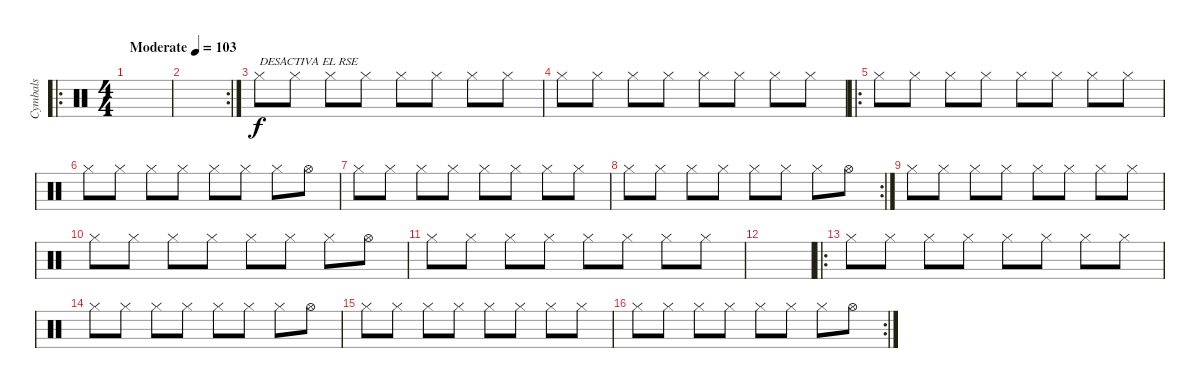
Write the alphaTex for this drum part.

\track ("Cymbals" "Cymbals") {instrument percussion}
\staff {score}
\articulation defaults
\ro
\ts (4 4)
\tempo (103 "Moderate")
\clef neutral
\ks c
|
\rc 2
|
"Hi-Hat (closed)".8{txt "DESACTIVA EL RSE"} "Hi-Hat (closed)".8 "Hi-Hat (closed)".8 "Hi-Hat (closed)".8 "Hi-Hat (closed)".8 "Hi-Hat (closed)".8 "Hi-Hat (closed)".8 "Hi-Hat (closed)".8 |
"Hi-Hat (closed)".8 "Hi-Hat (closed)".8 "Hi-Hat (closed)".8 "Hi-Hat (closed)".8 "Hi-Hat (closed)".8 "Hi-Hat (closed)".8 "Hi-Hat (closed)".8 "Hi-Hat (closed)".8 |
\ro "Hi-Hat (closed)".8 "Hi-Hat (closed)".8 "Hi-Hat (closed)".8 "Hi-Hat (closed)".8 "Hi-Hat (closed)".8 "Hi-Hat (closed)".8 "Hi-Hat (closed)".8 "Hi-Hat (closed)".8
|
"Hi-Hat (closed)".8 "Hi-Hat (closed)".8 "Hi-Hat (closed)".8 "Hi-Hat (closed)".8 "Hi-Hat (closed)".8 "Hi-Hat (closed)".8 "Hi-Hat (closed)".8 "Hi-Hat (open)".8 |
"Hi-Hat (closed)".8 "Hi-Hat (closed)".8 "Hi-Hat (closed)".8 "Hi-Hat (closed)".8 "Hi-Hat (closed)".8 "Hi-Hat (closed)".8 "Hi-Hat (closed)".8 "Hi-Hat (closed)".8 |
\rc 2 "Hi-Hat (closed)".8 "Hi-Hat (closed)".8 "Hi-Hat (closed)".8 "Hi-Hat (closed)".8 "Hi-Hat (closed)".8 "Hi-Hat (closed)".8 "Hi-Hat (closed)".8 "Hi-Hat (open)".8
|
"Hi-Hat (closed)".8 "Hi-Hat (closed)".8 "Hi-Hat (closed)".8 "Hi-Hat (closed)".8 "Hi-Hat (closed)".8 "Hi-Hat (closed)".8 "Hi-Hat (closed)".8 "Hi-Hat (closed)".8 |
"Hi-Hat (closed)".8 "Hi-Hat (closed)".8 "Hi-Hat (closed)".8 "Hi-Hat (closed)".8 "Hi-Hat (closed)".8 "Hi-Hat (closed)".8 "Hi-Hat (closed)".8 "Hi-Hat (open)".8 |
"Hi-Hat (closed)".8 "Hi-Hat (closed)".8 "Hi-Hat (closed)".8 "Hi-Hat (closed)".8 "Hi-Hat (closed)".8 "Hi-Hat (closed)".8 "Hi-Hat (closed)".8 "Hi-Hat (closed)".8 |
|
\ro "Hi-Hat (closed)".8 "Hi-Hat (closed)".8 "Hi-Hat (closed)".8 "Hi-Hat (closed)".8 "Hi-Hat (closed)".8 "Hi-Hat (closed)".8 "Hi-Hat (closed)".8 "Hi-Hat (closed)".8
|
"Hi-Hat (closed)".8 "Hi-Hat (closed)".8 "Hi-Hat (closed)".8 "Hi-Hat (closed)".8 "Hi-Hat (closed)".8 "Hi-Hat (closed)".8 "Hi-Hat (closed)".8 "Hi-Hat (open)".8 |
"Hi-Hat (closed)".8 "Hi-Hat (closed)".8 "Hi-Hat (closed)".8 "Hi-Hat (closed)".8 "Hi-Hat (closed)".8 "Hi-Hat (closed)".8 "Hi-Hat (closed)".8 "Hi-Hat (closed)".8 |
\rc 2 "Hi-Hat (closed)".8 "Hi-Hat (closed)".8 "Hi-Hat (closed)".8 "Hi-Hat (closed)".8 "Hi-Hat (closed)".8 "Hi-Hat (closed)".8 "Hi-Hat (closed)".8 "Hi-Hat (open)".8
